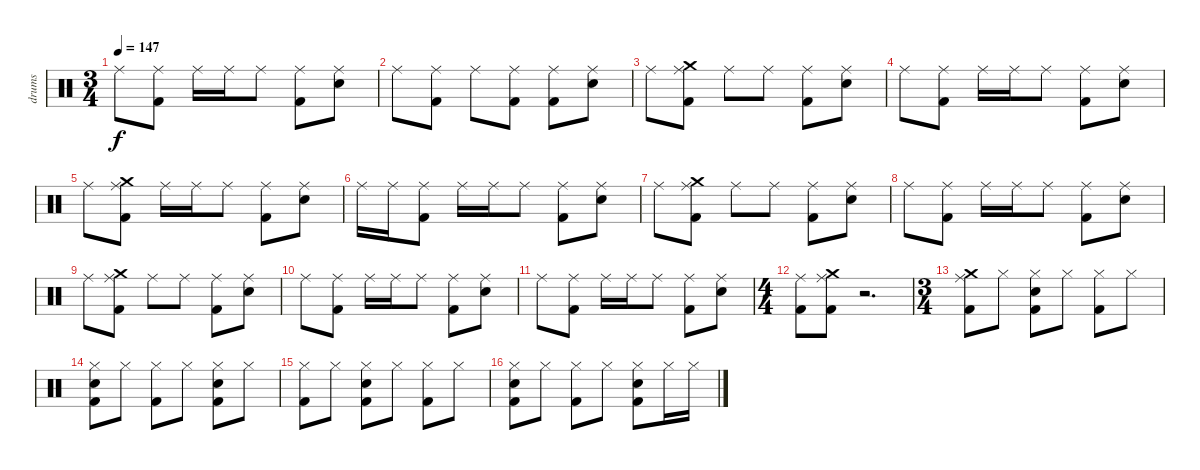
\track ("drums" "drums") {instrument percussion}
\staff {score}
\articulation defaults
\ts (3 4)
\tempo 147
\clef neutral
\ks c "Ride (middle)".8{dy f}
("Ride (middle)" "Kick (hit) 2").8 "Ride (middle)".16 "Ride (middle)".16 "Ride (middle)".8 ("Ride (middle)" "Kick (hit) 2").8 ("Ride (middle)" "Snare (hit) 2").8 |
"Ride (middle)".8 ("Ride (middle)" "Kick (hit) 2").8 "Ride (middle)".8 ("Ride (middle)" "Kick (hit) 2").8 ("Ride (middle)" "Kick (hit) 2").8 ("Ride (middle)" "Snare (hit) 2").8 |
"Ride (middle)".8 ("Crash medium (hit)" "Ride (middle)" "Kick (hit) 2").8 "Ride (middle)".8 "Ride (middle)".8 ("Ride (middle)" "Kick (hit) 2").8 ("Ride (middle)" "Snare (hit) 2").8 |
"Ride (middle)".8 ("Ride (middle)" "Kick (hit) 2").8 "Ride (middle)".16 "Ride (middle)".16 "Ride (middle)".8 ("Ride (middle)" "Kick (hit) 2").8 ("Ride (middle)" "Snare (hit) 2").8 |
"Ride (middle)".8 ("Crash medium (hit)" "Ride (middle)" "Kick (hit) 2").8 "Ride (middle)".16 "Ride (middle)".16 "Ride (middle)".8 ("Ride (middle)" "Kick (hit) 2").8 ("Ride (middle)" "Snare (hit) 2").8 |
"Ride (middle)".16 "Ride (middle)".16 ("Ride (middle)" "Kick (hit) 2").8 "Ride (middle)".16 "Ride (middle)".16 "Ride (middle)".8 ("Ride (middle)" "Kick (hit) 2").8 ("Ride (middle)" "Snare (hit) 2").8 |
"Ride (middle)".8 ("Crash medium (hit)" "Ride (middle)" "Kick (hit) 2").8 "Ride (middle)".8 "Ride (middle)".8 ("Ride (middle)" "Kick (hit) 2").8 ("Ride (middle)" "Snare (hit) 2").8 |
"Ride (middle)".8 ("Ride (middle)" "Kick (hit) 2").8 "Ride (middle)".16 "Ride (middle)".16 "Ride (middle)".8 ("Ride (middle)" "Kick (hit) 2").8 ("Ride (middle)" "Snare (hit) 2").8 |
"Ride (middle)".8 ("Crash medium (hit)" "Ride (middle)" "Kick (hit) 2").8 "Ride (middle)".8 "Ride (middle)".8 ("Ride (middle)" "Kick (hit) 2").8 ("Ride (middle)" "Snare (hit) 2").8 |
"Ride (middle)".8 ("Ride (middle)" "Kick (hit) 2").8 "Ride (middle)".16 "Ride (middle)".16 "Ride (middle)".8 ("Ride (middle)" "Kick (hit) 2").8 ("Ride (middle)" "Snare (hit) 2").8 |
"Ride (middle)".8 ("Ride (middle)" "Kick (hit) 2").8 "Ride (middle)".16 "Ride (middle)".16 "Ride (middle)".8 ("Ride (middle)" "Kick (hit) 2").8 ("Ride (middle)" "Snare (hit) 2").8 |
\ts (4 4)
("Ride (middle)" "Kick (hit) 2").8 ("Crash medium (hit)" "Ride (middle)" "Kick (hit) 2").8 r.2{d} |
\ts (3 4)
("Crash medium (hit)" "Ride (middle)" "Kick (hit) 2").8 "Hi-Hat (closed)".8 ("Hi-Hat (closed)" "Snare (hit) 2" "Kick (hit) 2").8 "Hi-Hat (closed)".8 ("Hi-Hat (closed)" "Kick (hit) 2").8 "Hi-Hat (closed)".8 |
("Hi-Hat (closed)" "Snare (hit) 2" "Kick (hit) 2").8 "Hi-Hat (closed)".8 ("Hi-Hat (closed)" "Kick (hit) 2").8 "Hi-Hat (closed)".8 ("Hi-Hat (closed)" "Snare (hit) 2" "Kick (hit) 2").8 "Hi-Hat (closed)".8 |
("Hi-Hat (closed)" "Kick (hit) 2").8 "Hi-Hat (closed)".8 ("Hi-Hat (closed)" "Snare (hit) 2" "Kick (hit) 2").8 "Hi-Hat (closed)".8 ("Hi-Hat (closed)" "Kick (hit) 2").8 "Hi-Hat (closed)".8 |
("Hi-Hat (closed)" "Snare (hit) 2" "Kick (hit) 2").8 "Hi-Hat (closed)".8 ("Hi-Hat (closed)" "Kick (hit) 2").8 "Hi-Hat (closed)".8 ("Hi-Hat (closed)" "Snare (hit) 2" "Kick (hit) 2").8 "Hi-Hat (closed)".16 "Hi-Hat (closed)".16
